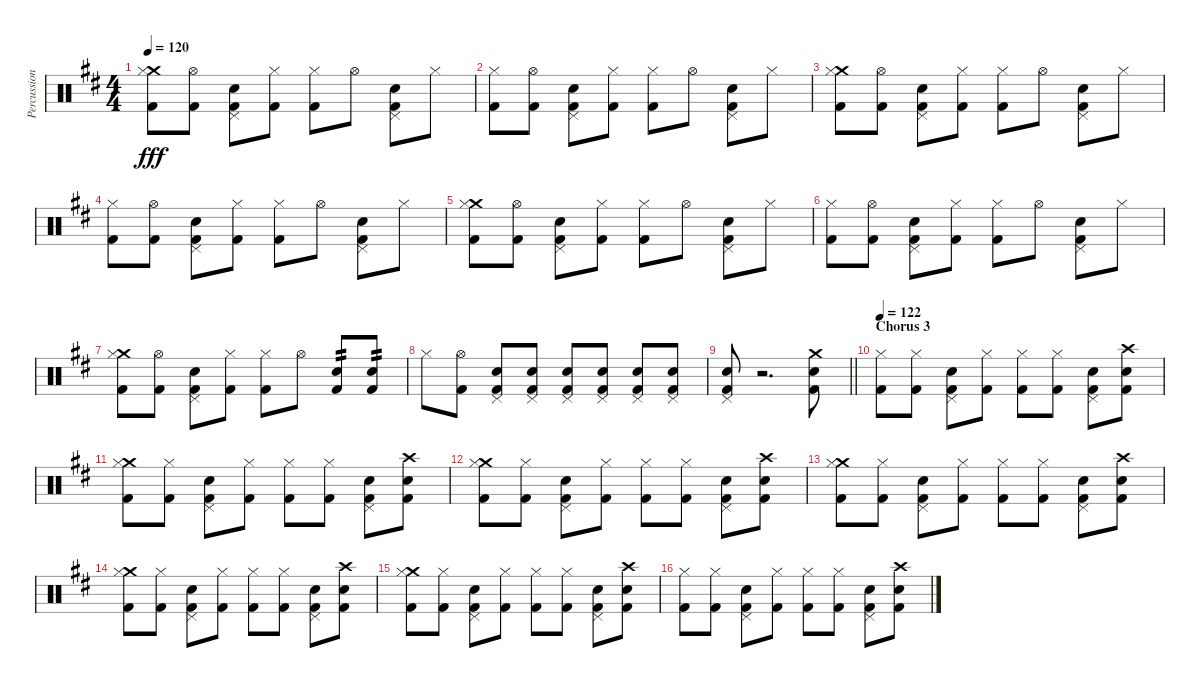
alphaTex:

\track ("Percussion: Boz Burrell" "Percussion") {instrument percussion}
\staff {score}
\articulation defaults
\ts (4 4)
\tempo 120
\clef neutral
\ks d
("Crash medium (hit)" "Hi-Hat (closed)" "Kick (hit) 2").8{dy fff} ("Hi-Hat (open)" "Kick (hit) 2").8 ("Pedal Hi-Hat (hit)" "Snare (hit) 2" "Kick (hit) 2").8 ("Hi-Hat (closed)" "Kick (hit) 2").8 ("Hi-Hat (closed)" "Kick (hit) 2").8 "Hi-Hat (open)".8 ("Pedal Hi-Hat (hit)" "Snare (hit) 2" "Kick (hit) 2").8 "Hi-Hat (closed)".8 |
("Hi-Hat (closed)" "Kick (hit) 2").8 ("Hi-Hat (open)" "Kick (hit) 2").8 ("Pedal Hi-Hat (hit)" "Snare (hit) 2" "Kick (hit) 2").8 ("Hi-Hat (closed)" "Kick (hit) 2").8 ("Hi-Hat (closed)" "Kick (hit) 2").8 "Hi-Hat (open)".8 ("Pedal Hi-Hat (hit)" "Snare (hit) 2" "Kick (hit) 2").8 "Hi-Hat (closed)".8 |
("Crash medium (hit)" "Hi-Hat (closed)" "Kick (hit) 2").8 ("Hi-Hat (open)" "Kick (hit) 2").8 ("Pedal Hi-Hat (hit)" "Snare (hit) 2" "Kick (hit) 2").8 ("Hi-Hat (closed)" "Kick (hit) 2").8 ("Hi-Hat (closed)" "Kick (hit) 2").8 "Hi-Hat (open)".8 ("Pedal Hi-Hat (hit)" "Snare (hit) 2" "Kick (hit) 2").8 "Hi-Hat (closed)".8 |
("Hi-Hat (closed)" "Kick (hit) 2").8 ("Hi-Hat (open)" "Kick (hit) 2").8 ("Pedal Hi-Hat (hit)" "Snare (hit) 2" "Kick (hit) 2").8 ("Hi-Hat (closed)" "Kick (hit) 2").8 ("Hi-Hat (closed)" "Kick (hit) 2").8 "Hi-Hat (open)".8 ("Pedal Hi-Hat (hit)" "Snare (hit) 2" "Kick (hit) 2").8 "Hi-Hat (closed)".8 |
("Crash medium (hit)" "Hi-Hat (closed)" "Kick (hit) 2").8 ("Hi-Hat (open)" "Kick (hit) 2").8 ("Pedal Hi-Hat (hit)" "Snare (hit) 2" "Kick (hit) 2").8 ("Hi-Hat (closed)" "Kick (hit) 2").8 ("Hi-Hat (closed)" "Kick (hit) 2").8 "Hi-Hat (open)".8 ("Pedal Hi-Hat (hit)" "Snare (hit) 2" "Kick (hit) 2").8 "Hi-Hat (closed)".8 |
("Hi-Hat (closed)" "Kick (hit) 2").8 ("Hi-Hat (open)" "Kick (hit) 2").8 ("Pedal Hi-Hat (hit)" "Snare (hit) 2" "Kick (hit) 2").8 ("Hi-Hat (closed)" "Kick (hit) 2").8 ("Hi-Hat (closed)" "Kick (hit) 2").8 "Hi-Hat (open)".8 ("Pedal Hi-Hat (hit)" "Snare (hit) 2" "Kick (hit) 2").8 "Hi-Hat (closed)".8 |
("Crash medium (hit)" "Hi-Hat (closed)" "Kick (hit) 2").8 ("Hi-Hat (open)" "Kick (hit) 2").8 ("Pedal Hi-Hat (hit)" "Snare (hit) 2" "Kick (hit) 2").8 ("Hi-Hat (closed)" "Kick (hit) 2").8 ("Hi-Hat (closed)" "Kick (hit) 2").8 "Hi-Hat (open)".8 ("Snare (hit) 2" "Kick (hit) 2").8{tp 2} ("Snare (hit) 2" "Kick (hit) 2").8{tp 2} |
"Hi-Hat (closed)".8 ("Hi-Hat (open)" "Kick (hit) 2").8 ("Pedal Hi-Hat (hit)" "Snare (hit) 2" "Kick (hit) 2").8 ("Pedal Hi-Hat (hit)" "Snare (hit) 2" "Kick (hit) 2").8 ("Pedal Hi-Hat (hit)" "Snare (hit) 2" "Kick (hit) 2").8 ("Pedal Hi-Hat (hit)" "Snare (hit) 2" "Kick (hit) 2").8 ("Pedal Hi-Hat (hit)" "Snare (hit) 2" "Kick (hit) 2").8 ("Pedal Hi-Hat (hit)" "Snare (hit) 2" "Kick (hit) 2").8 |
\barLineRight lightlight
("Pedal Hi-Hat (hit)" "Snare (hit) 2" "Kick (hit) 2").8 r.2{d} ("Crash medium (hit)" "Snare (hit) 2" "Kick (hit) 2").8 |
\section ("" "Chorus 3")
\tempo 122
("Hi-Hat (closed)" "Kick (hit) 2").8 ("Hi-Hat (closed)" "Kick (hit) 2").8 ("Pedal Hi-Hat (hit)" "Snare (hit) 2" "Kick (hit) 2").8 ("Hi-Hat (closed)" "Kick (hit) 2").8 ("Hi-Hat (closed)" "Kick (hit) 2").8 ("Hi-Hat (closed)" "Kick (hit) 2").8 ("Pedal Hi-Hat (hit)" "Snare (hit) 2" "Kick (hit) 2").8 ("Crash high (hit)" "Snare (hit) 2" "Kick (hit) 2").8 |
("Crash medium (hit)" "Hi-Hat (closed)" "Kick (hit) 2").8 ("Hi-Hat (closed)" "Kick (hit) 2").8 ("Pedal Hi-Hat (hit)" "Snare (hit) 2" "Kick (hit) 2").8 ("Hi-Hat (closed)" "Kick (hit) 2").8 ("Hi-Hat (closed)" "Kick (hit) 2").8 ("Hi-Hat (closed)" "Kick (hit) 2").8 ("Pedal Hi-Hat (hit)" "Snare (hit) 2" "Kick (hit) 2").8 ("Crash high (hit)" "Snare (hit) 2" "Kick (hit) 2").8 |
("Crash medium (hit)" "Hi-Hat (closed)" "Kick (hit) 2").8 ("Hi-Hat (closed)" "Kick (hit) 2").8 ("Pedal Hi-Hat (hit)" "Snare (hit) 2" "Kick (hit) 2").8 ("Hi-Hat (closed)" "Kick (hit) 2").8 ("Hi-Hat (closed)" "Kick (hit) 2").8 ("Hi-Hat (closed)" "Kick (hit) 2").8 ("Pedal Hi-Hat (hit)" "Snare (hit) 2" "Kick (hit) 2").8 ("Crash high (hit)" "Snare (hit) 2" "Kick (hit) 2").8 |
("Crash medium (hit)" "Hi-Hat (closed)" "Kick (hit) 2").8 ("Hi-Hat (closed)" "Kick (hit) 2").8 ("Pedal Hi-Hat (hit)" "Snare (hit) 2" "Kick (hit) 2").8 ("Hi-Hat (closed)" "Kick (hit) 2").8 ("Hi-Hat (closed)" "Kick (hit) 2").8 ("Hi-Hat (closed)" "Kick (hit) 2").8 ("Pedal Hi-Hat (hit)" "Snare (hit) 2" "Kick (hit) 2").8 ("Crash high (hit)" "Snare (hit) 2" "Kick (hit) 2").8 |
("Crash medium (hit)" "Hi-Hat (closed)" "Kick (hit) 2").8 ("Hi-Hat (closed)" "Kick (hit) 2").8 ("Pedal Hi-Hat (hit)" "Snare (hit) 2" "Kick (hit) 2").8 ("Hi-Hat (closed)" "Kick (hit) 2").8 ("Hi-Hat (closed)" "Kick (hit) 2").8 ("Hi-Hat (closed)" "Kick (hit) 2").8 ("Pedal Hi-Hat (hit)" "Snare (hit) 2" "Kick (hit) 2").8 ("Crash high (hit)" "Snare (hit) 2" "Kick (hit) 2").8 |
("Crash medium (hit)" "Hi-Hat (closed)" "Kick (hit) 2").8 ("Hi-Hat (closed)" "Kick (hit) 2").8 ("Pedal Hi-Hat (hit)" "Snare (hit) 2" "Kick (hit) 2").8 ("Hi-Hat (closed)" "Kick (hit) 2").8 ("Hi-Hat (closed)" "Kick (hit) 2").8 ("Hi-Hat (closed)" "Kick (hit) 2").8 ("Pedal Hi-Hat (hit)" "Snare (hit) 2" "Kick (hit) 2").8 ("Crash high (hit)" "Snare (hit) 2" "Kick (hit) 2").8 |
("Hi-Hat (closed)" "Kick (hit) 2").8 ("Hi-Hat (closed)" "Kick (hit) 2").8 ("Pedal Hi-Hat (hit)" "Snare (hit) 2" "Kick (hit) 2").8 ("Hi-Hat (closed)" "Kick (hit) 2").8 ("Hi-Hat (closed)" "Kick (hit) 2").8 ("Hi-Hat (closed)" "Kick (hit) 2").8 ("Pedal Hi-Hat (hit)" "Snare (hit) 2" "Kick (hit) 2").8 ("Crash high (hit)" "Snare (hit) 2" "Kick (hit) 2").8
